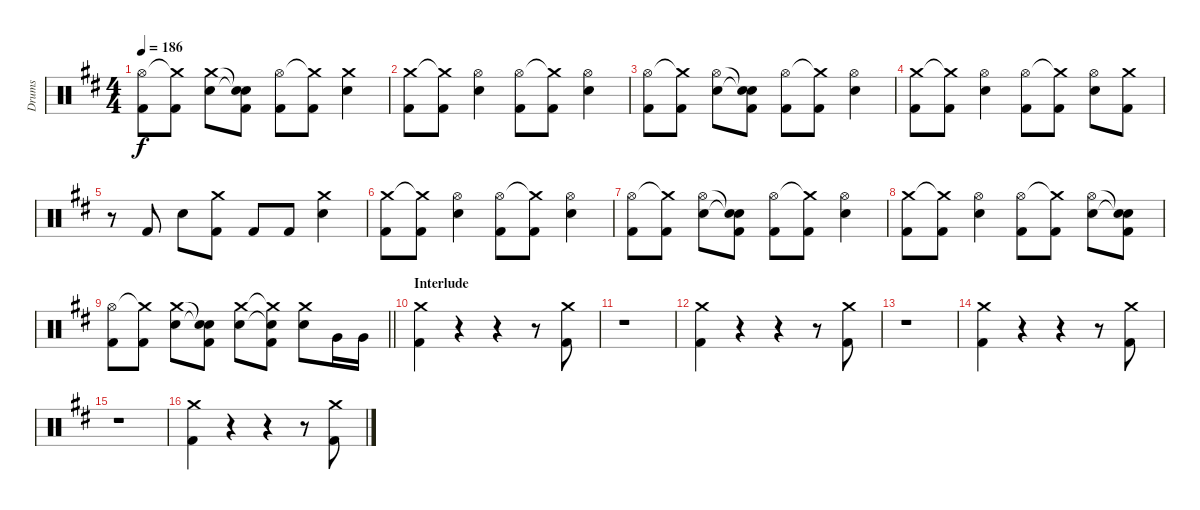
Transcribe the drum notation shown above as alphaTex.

\track ("Drums" "Drums") {instrument percussion}
\staff {score}
\articulation defaults
\ts (4 4)
\tempo 186
\clef neutral
\ks d
("Hi-Hat (open)" "Kick (hit) 2").8{dy f} ("Crash medium (hit)"{t} "Kick (hit) 2").8 ("Crash medium (hit)" "Electric Snare (hit)").8 ("Snare (hit)"{t} "Snare (hit)"{t} "Kick (hit) 2").8 ("Hi-Hat (open)" "Kick (hit) 2").8 ("Crash medium (hit)"{t} "Kick (hit) 2").8 ("Crash medium (hit)" "Electric Snare (hit)").4 |
("Crash medium (hit)" "Kick (hit) 2").8 ("Crash medium (hit)"{t} "Kick (hit) 2").8 ("Hi-Hat (open)" "Electric Snare (hit)").4 ("Hi-Hat (open)" "Kick (hit) 2").8 ("Crash medium (hit)"{t} "Kick (hit) 2").8 ("Hi-Hat (open)" "Electric Snare (hit)").4 |
("Hi-Hat (open)" "Kick (hit) 2").8 ("Crash medium (hit)"{t} "Kick (hit) 2").8 ("Hi-Hat (open)" "Electric Snare (hit)").8 ("Snare (hit)"{t} "Snare (hit)"{t} "Kick (hit) 2").8 ("Hi-Hat (open)" "Kick (hit) 2").8 ("Crash medium (hit)"{t} "Kick (hit) 2").8 ("Hi-Hat (open)" "Electric Snare (hit)").4 |
("Crash medium (hit)" "Kick (hit) 2").8 ("Crash medium (hit)"{t} "Kick (hit) 2").8 ("Hi-Hat (open)" "Electric Snare (hit)").4 ("Hi-Hat (open)" "Kick (hit) 2").8 ("Crash medium (hit)"{t} "Kick (hit) 2").8 ("Hi-Hat (open)" "Electric Snare (hit)").8 ("Crash medium (hit)" "Kick (hit) 2").8 |
r.8 "Kick (hit) 2".8 "Electric Snare (hit)".8 ("Crash medium (hit)" "Kick (hit) 2").8 "Kick (hit) 2".8 "Kick (hit) 2".8 ("Crash medium (hit)" "Electric Snare (hit)").4 |
("Crash medium (hit)" "Kick (hit) 2").8 ("Crash medium (hit)"{t} "Kick (hit) 2").8 ("Hi-Hat (open)" "Electric Snare (hit)").4 ("Hi-Hat (open)" "Kick (hit) 2").8 ("Crash medium (hit)"{t} "Kick (hit) 2").8 ("Hi-Hat (open)" "Electric Snare (hit)").4 |
("Hi-Hat (open)" "Kick (hit) 2").8 ("Crash medium (hit)"{t} "Kick (hit) 2").8 ("Hi-Hat (open)" "Electric Snare (hit)").8 ("Snare (hit)"{t} "Snare (hit)"{t} "Kick (hit) 2").8 ("Hi-Hat (open)" "Kick (hit) 2").8 ("Crash medium (hit)"{t} "Kick (hit) 2").8 ("Hi-Hat (open)" "Electric Snare (hit)").4 |
("Crash medium (hit)" "Kick (hit) 2").8 ("Crash medium (hit)"{t} "Kick (hit) 2").8 ("Hi-Hat (open)" "Electric Snare (hit)").4 ("Hi-Hat (open)" "Kick (hit) 2").8 ("Crash medium (hit)"{t} "Kick (hit) 2").8 ("Hi-Hat (open)" "Electric Snare (hit)").8 ("Snare (hit)"{t} "Snare (hit)"{t} "Kick (hit) 2").8 |
\barLineRight lightlight
("Hi-Hat (open)" "Kick (hit) 2").8 ("Crash medium (hit)"{t} "Kick (hit) 2").8 ("Crash medium (hit)" "Electric Snare (hit)").8 ("Snare (hit)"{t} "Snare (hit)"{t} "Kick (hit) 2").8 ("Crash medium (hit)" "Electric Snare (hit)").8 ("Crash medium (hit)"{t} "Snare (hit)"{t} "Kick (hit) 2").8 ("Crash medium (hit)" "Electric Snare (hit)").8 "Very Low Tom (hit)".16 "Very Low Tom (hit)".16 |
\section ("" "Interlude")
("Crash medium (hit)" "Kick (hit) 2").4 r.4 r.4 r.8 ("Crash medium (hit)" "Kick (hit) 2").8 |
r.1 |
("Crash medium (hit)" "Kick (hit) 2").4 r.4 r.4 r.8 ("Crash medium (hit)" "Kick (hit) 2").8 |
r.1 |
("Crash medium (hit)" "Kick (hit) 2").4 r.4 r.4 r.8 ("Crash medium (hit)" "Kick (hit) 2").8 |
r.1 |
("Crash medium (hit)" "Kick (hit) 2").4 r.4 r.4 r.8 ("Crash medium (hit)" "Kick (hit) 2").8
